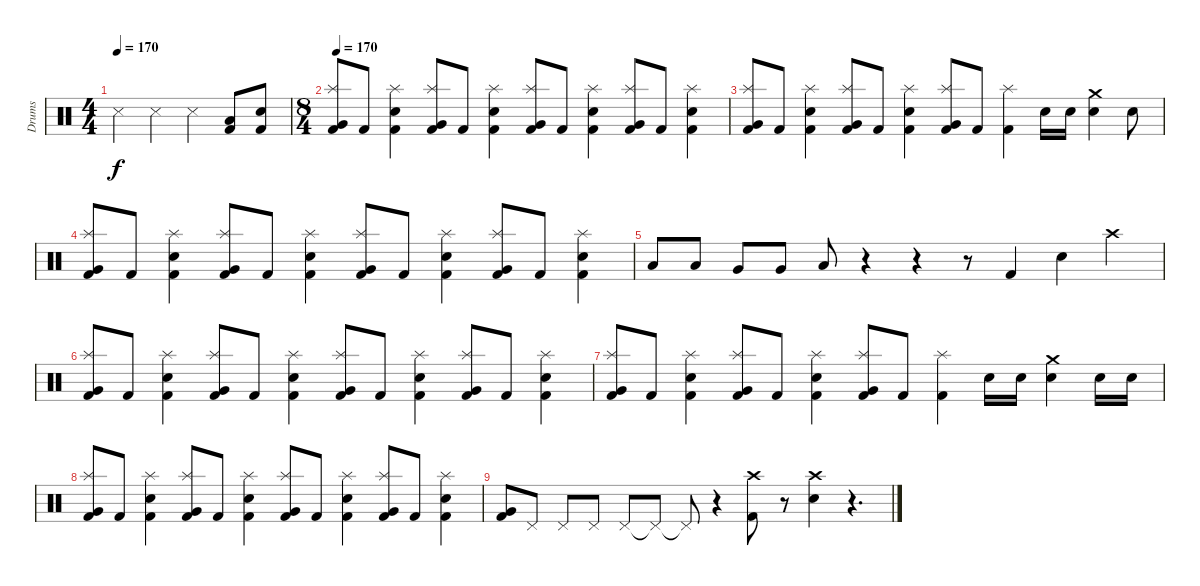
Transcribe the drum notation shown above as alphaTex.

\track ("Drums" "Drums") {instrument percussion}
\staff {score}
\articulation defaults
\ts (4 4)
\tempo 170
\tempo 180
\tempo 170
\clef neutral
\ks c "Snare (side stick) 3".4{dy f} "Snare (side stick) 3".4 "Snare (side stick) 3".4
("Low Tom (hit)" "Kick (hit) 2").8 ("Snare (hit) 2" "Kick (hit) 2").8 |
\ts (8 4)
\tempo 170
("Splash (hit)" "Kick (hit) 2" "Very Low Tom (hit)").8 "Kick (hit) 2".8 ("Splash (hit)" "Kick (hit) 2" "Snare (hit) 2").4 ("Splash (hit)" "Kick (hit) 2" "Very Low Tom (hit)").8 "Kick (hit) 2".8 ("Splash (hit)" "Kick (hit) 2" "Snare (hit) 2").4 ("Splash (hit)" "Kick (hit) 2" "Very Low Tom (hit)").8 "Kick (hit) 2".8 ("Splash (hit)" "Kick (hit) 2" "Snare (hit) 2").4 ("Splash (hit)" "Kick (hit) 2" "Very Low Tom (hit)").8 "Kick (hit) 2".8 ("Splash (hit)" "Kick (hit) 2" "Snare (hit) 2").4 |
("Splash (hit)" "Kick (hit) 2" "Very Low Tom (hit)").8 "Kick (hit) 2".8 ("Splash (hit)" "Kick (hit) 2" "Snare (hit) 2").4 ("Splash (hit)" "Kick (hit) 2" "Very Low Tom (hit)").8 "Kick (hit) 2".8 ("Splash (hit)" "Kick (hit) 2" "Snare (hit) 2").4 ("Splash (hit)" "Kick (hit) 2" "Very Low Tom (hit)").8 "Kick (hit) 2".8 ("Splash (hit)" "Kick (hit) 2").4 "Snare (hit) 2".16 "Snare (hit) 2".16 ("Crash medium (hit)" "Snare (hit) 2").4 "Snare (hit) 2".8 |
("Splash (hit)" "Kick (hit) 2" "Very Low Tom (hit)").8 "Kick (hit) 2".8 ("Splash (hit)" "Kick (hit) 2" "Snare (hit) 2").4 ("Splash (hit)" "Kick (hit) 2" "Very Low Tom (hit)").8 "Kick (hit) 2".8 ("Splash (hit)" "Kick (hit) 2" "Snare (hit) 2").4 ("Splash (hit)" "Kick (hit) 2" "Very Low Tom (hit)").8 "Kick (hit) 2".8 ("Splash (hit)" "Kick (hit) 2" "Snare (hit) 2").4 ("Splash (hit)" "Kick (hit) 2" "Very Low Tom (hit)").8 "Kick (hit) 2".8 ("Splash (hit)" "Kick (hit) 2" "Snare (hit) 2").4 |
"Low Tom (hit)".8 "Low Tom (hit)".8 "Very Low Tom (hit)".8 "Very Low Tom (hit)".8 "Low Floor Tom (hit)".8 r.4 r.4 r.8 "Kick (hit) 2".4 "Electric Snare (hit)".4 "Crash high (hit)".4 |
("Splash (hit)" "Kick (hit) 2" "Very Low Tom (hit)").8 "Kick (hit) 2".8 ("Splash (hit)" "Kick (hit) 2" "Snare (hit) 2").4 ("Splash (hit)" "Kick (hit) 2" "Very Low Tom (hit)").8 "Kick (hit) 2".8 ("Splash (hit)" "Kick (hit) 2" "Snare (hit) 2").4 ("Splash (hit)" "Kick (hit) 2" "Very Low Tom (hit)").8 "Kick (hit) 2".8 ("Splash (hit)" "Kick (hit) 2" "Snare (hit) 2").4 ("Splash (hit)" "Kick (hit) 2" "Very Low Tom (hit)").8 "Kick (hit) 2".8 ("Splash (hit)" "Kick (hit) 2" "Snare (hit) 2").4 |
("Splash (hit)" "Kick (hit) 2" "Very Low Tom (hit)").8 "Kick (hit) 2".8 ("Splash (hit)" "Kick (hit) 2" "Snare (hit) 2").4 ("Splash (hit)" "Kick (hit) 2" "Very Low Tom (hit)").8 "Kick (hit) 2".8 ("Splash (hit)" "Kick (hit) 2" "Snare (hit) 2").4 ("Splash (hit)" "Kick (hit) 2" "Very Low Tom (hit)").8 "Kick (hit) 2".8 ("Splash (hit)" "Kick (hit) 2").4 "Snare (hit) 2".16 "Snare (hit) 2".16 ("Crash medium (hit)" "Snare (hit) 2").4 "Snare (hit) 2".16 "Snare (hit) 2".16 |
("Splash (hit)" "Kick (hit) 2" "Very Low Tom (hit)").8 "Kick (hit) 2".8 ("Splash (hit)" "Kick (hit) 2" "Snare (hit) 2").4 ("Splash (hit)" "Kick (hit) 2" "Very Low Tom (hit)").8 "Kick (hit) 2".8 ("Splash (hit)" "Kick (hit) 2" "Snare (hit) 2").4 ("Splash (hit)" "Kick (hit) 2" "Very Low Tom (hit)").8 "Kick (hit) 2".8 ("Splash (hit)" "Kick (hit) 2" "Snare (hit) 2").4 ("Splash (hit)" "Kick (hit) 2" "Very Low Tom (hit)").8 "Kick (hit) 2".8 ("Splash (hit)" "Kick (hit) 2" "Snare (hit) 2").4 |
("Kick (hit) 2" "Very Low Tom (hit)").8 "Pedal Hi-Hat (hit)".8 "Pedal Hi-Hat (hit)".8 "Pedal Hi-Hat (hit)".8 "Pedal Hi-Hat (hit)".8 "Pedal Hi-Hat (hit)"{t}.8 "Pedal Hi-Hat (hit)"{t}.8 r.4 ("Crash high (hit)" "Kick (hit) 2").8 r.8 ("Crash high (hit)" "Electric Snare (hit)").4 r.4{d}
